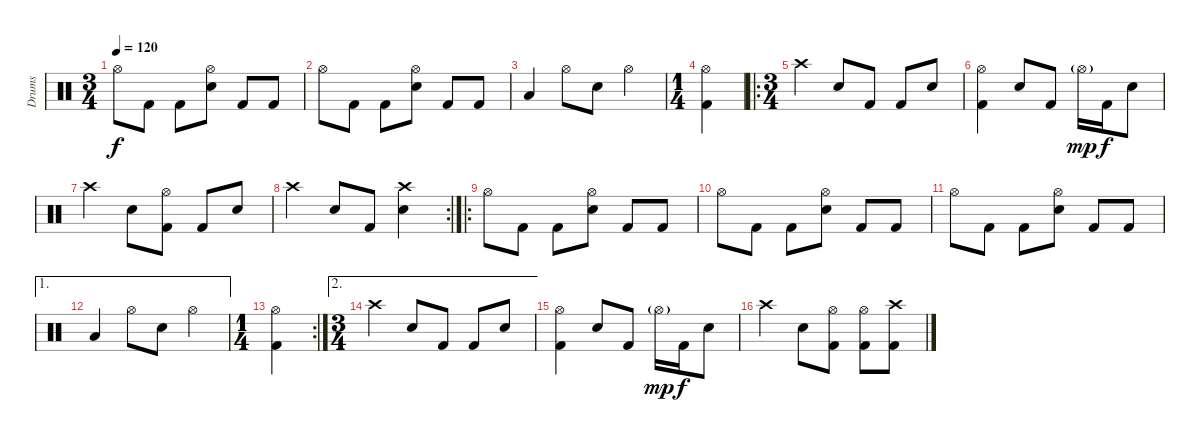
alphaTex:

\track ("Drums" "Drums") {instrument percussion}
\staff {score}
\articulation defaults
\ts (3 4)
\tempo 120
\clef neutral
\ks c "Hi-Hat (open)".8{dy f} "Kick (hit) 2".8 "Kick (hit) 2".8
("Electric Snare (hit)" "Hi-Hat (open)").8 "Kick (hit) 2".8 "Kick (hit) 2".8 |
"Hi-Hat (open)".8 "Kick (hit) 2".8 "Kick (hit) 2".8 ("Electric Snare (hit)" "Hi-Hat (open)").8 "Kick (hit) 2".8 "Kick (hit) 2".8 |
"Low Tom (hit)".4 "Hi-Hat (open)".8 "Snare (hit) 2".8 "Hi-Hat (open)".4 |
\ts (1 4)
("Hi-Hat (open)" "Kick (hit) 2").4 |
\ro
\ts (3 4)
"Crash high (hit)".4 "Electric Snare (hit)".8 "Kick (hit) 2".8 "Kick (hit) 2".8 "Electric Snare (hit)".8 |
("Kick (hit) 2" "Hi-Hat (open)").4 "Electric Snare (hit)".8 "Kick (hit) 2".8 "Hi-Hat (open)"{g}.16{dy mp} "Kick (hit) 2".16{dy f} "Electric Snare (hit)".8 |
"Crash high (hit)".4 "Electric Snare (hit)".8 ("Kick (hit) 2" "Hi-Hat (open)").8 "Kick (hit) 2".8 "Electric Snare (hit)".8 |
\rc 2 "Crash high (hit)".4 "Electric Snare (hit)".8 "Kick (hit) 2".8
("Electric Snare (hit)" "Crash high (hit)").4 |
\ro "Hi-Hat (open)".8 "Kick (hit) 2".8 "Kick (hit) 2".8
("Electric Snare (hit)" "Hi-Hat (open)").8 "Kick (hit) 2".8 "Kick (hit) 2".8 |
"Hi-Hat (open)".8 "Kick (hit) 2".8 "Kick (hit) 2".8 ("Electric Snare (hit)" "Hi-Hat (open)").8 "Kick (hit) 2".8 "Kick (hit) 2".8 |
"Hi-Hat (open)".8 "Kick (hit) 2".8 "Kick (hit) 2".8 ("Electric Snare (hit)" "Hi-Hat (open)").8 "Kick (hit) 2".8 "Kick (hit) 2".8 |
\ae 1 "Low Tom (hit)".4 "Hi-Hat (open)".8 "Snare (hit) 2".8 "Hi-Hat (open)".4
|
\rc 2
\ts (1 4)
("Hi-Hat (open)" "Kick (hit) 2").4 |
\ae 2
\ts (3 4)
"Crash high (hit)".4 "Electric Snare (hit)".8 "Kick (hit) 2".8 "Kick (hit) 2".8 "Electric Snare (hit)".8 |
("Kick (hit) 2" "Hi-Hat (open)").4 "Electric Snare (hit)".8 "Kick (hit) 2".8 "Hi-Hat (open)"{g}.16{dy mp} "Kick (hit) 2".16{dy f} "Electric Snare (hit)".8 |
"Crash high (hit)".4 "Electric Snare (hit)".8 ("Kick (hit) 2" "Hi-Hat (open)").8 ("Kick (hit) 2" "Hi-Hat (open)").8 ("Kick (hit) 2" "Crash high (hit)").8
